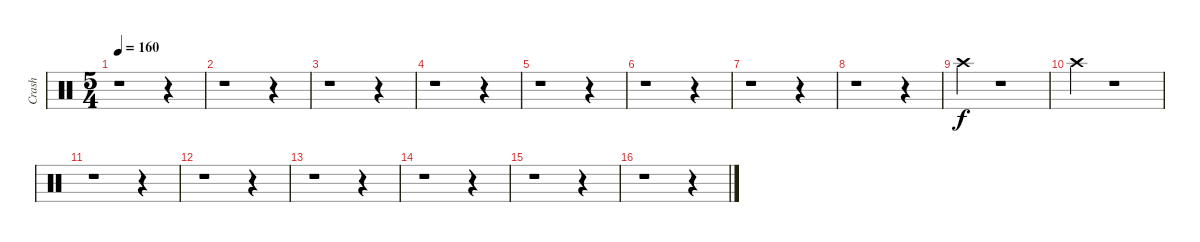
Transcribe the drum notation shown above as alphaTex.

\track ("Crash" "Crash") {instrument percussion}
\staff {score}
\articulation defaults
\ts (5 4)
\tempo 160
\clef neutral
\ks c
r.1{dy f} r.4 |
r.1 r.4 |
r.1 r.4 |
r.1 r.4 |
r.1 r.4 |
r.1 r.4 |
r.1 r.4 |
r.1 r.4 |
"Crash high (hit)".4 r.1 |
"Crash high (hit)".4 r.1 |
r.1 r.4 |
r.1 r.4 |
r.1 r.4 |
r.1 r.4 |
r.1 r.4 |
r.1 r.4
